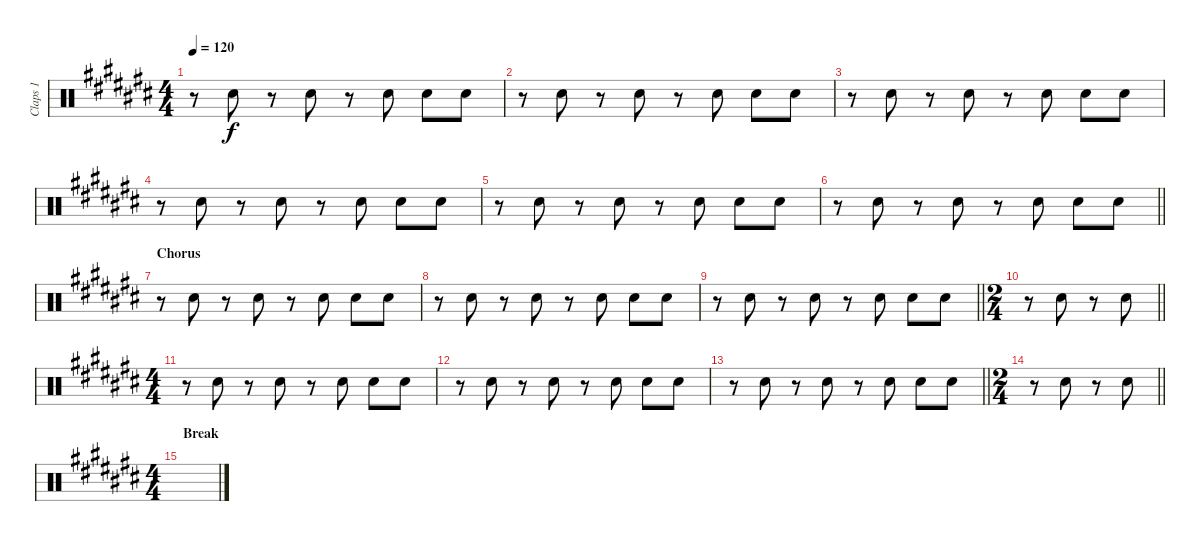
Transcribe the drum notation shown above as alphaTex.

\track ("Claps 1" "Claps 1") {instrument percussion}
\staff {score}
\articulation defaults
\ts (4 4)
\tempo 120
\clef neutral
\ks c#
r.8{dy f} "Hand Clap (hit)".8 r.8 "Hand Clap (hit)".8 r.8 "Hand Clap (hit)".8 "Hand Clap (hit)".8 "Hand Clap (hit)".8 |
r.8 "Hand Clap (hit)".8 r.8 "Hand Clap (hit)".8 r.8 "Hand Clap (hit)".8 "Hand Clap (hit)".8 "Hand Clap (hit)".8 |
r.8 "Hand Clap (hit)".8 r.8 "Hand Clap (hit)".8 r.8 "Hand Clap (hit)".8 "Hand Clap (hit)".8 "Hand Clap (hit)".8 |
r.8 "Hand Clap (hit)".8 r.8 "Hand Clap (hit)".8 r.8 "Hand Clap (hit)".8 "Hand Clap (hit)".8 "Hand Clap (hit)".8 |
r.8 "Hand Clap (hit)".8 r.8 "Hand Clap (hit)".8 r.8 "Hand Clap (hit)".8 "Hand Clap (hit)".8 "Hand Clap (hit)".8 |
\barLineRight lightlight
r.8 "Hand Clap (hit)".8 r.8 "Hand Clap (hit)".8 r.8 "Hand Clap (hit)".8 "Hand Clap (hit)".8 "Hand Clap (hit)".8 |
\section ("" "Chorus")
r.8 "Hand Clap (hit)".8 r.8 "Hand Clap (hit)".8 r.8 "Hand Clap (hit)".8 "Hand Clap (hit)".8 "Hand Clap (hit)".8 |
r.8 "Hand Clap (hit)".8 r.8 "Hand Clap (hit)".8 r.8 "Hand Clap (hit)".8 "Hand Clap (hit)".8 "Hand Clap (hit)".8 |
\barLineRight lightlight
r.8 "Hand Clap (hit)".8 r.8 "Hand Clap (hit)".8 r.8 "Hand Clap (hit)".8 "Hand Clap (hit)".8 "Hand Clap (hit)".8 |
\ts (2 4)
\barLineRight lightlight
r.8 "Hand Clap (hit)".8 r.8 "Hand Clap (hit)".8 |
\ts (4 4)
r.8 "Hand Clap (hit)".8 r.8 "Hand Clap (hit)".8 r.8 "Hand Clap (hit)".8 "Hand Clap (hit)".8 "Hand Clap (hit)".8 |
r.8 "Hand Clap (hit)".8 r.8 "Hand Clap (hit)".8 r.8 "Hand Clap (hit)".8 "Hand Clap (hit)".8 "Hand Clap (hit)".8 |
\barLineRight lightlight
r.8 "Hand Clap (hit)".8 r.8 "Hand Clap (hit)".8 r.8 "Hand Clap (hit)".8 "Hand Clap (hit)".8 "Hand Clap (hit)".8 |
\ts (2 4)
\barLineRight lightlight
r.8 "Hand Clap (hit)".8 r.8 "Hand Clap (hit)".8 |
\ts (4 4)
\section ("" "Break")
